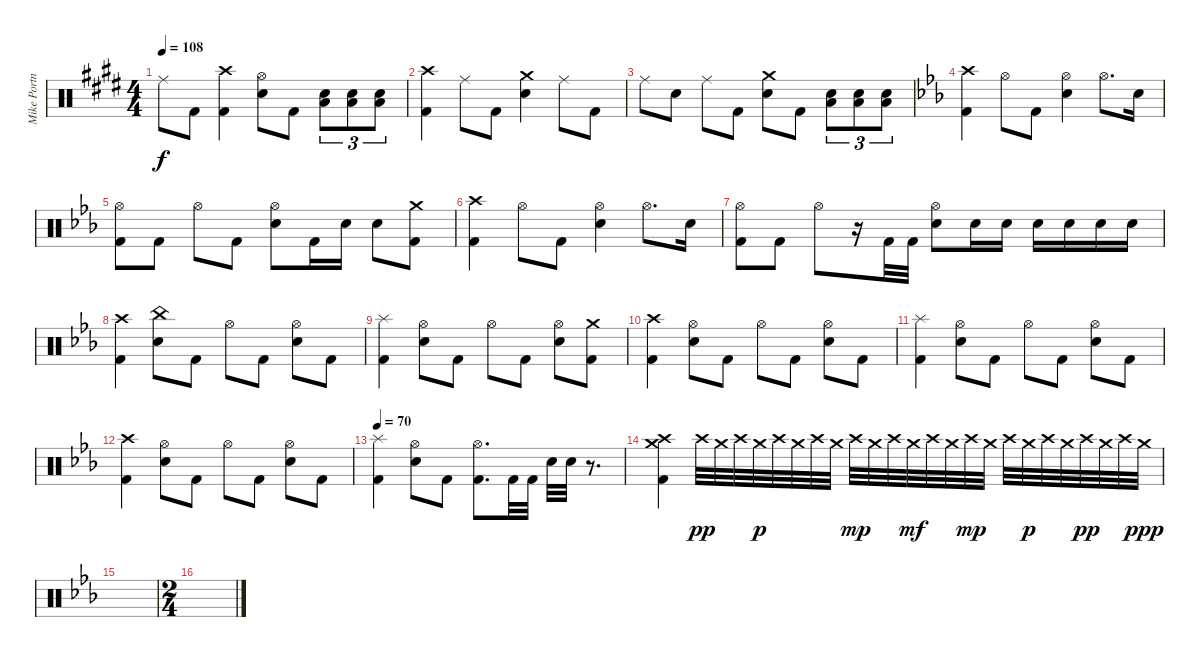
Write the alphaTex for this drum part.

\track ("Mike Portnoy" "Mike Portn") {instrument percussion}
\staff {score}
\articulation defaults
\ts (4 4)
\tempo 108
\clef neutral
\ks e "Ride (middle)".8{dy f} "Kick (hit) 2".8
("Crash high (hit)" "Kick (hit) 2").4 ("Hi-Hat (open)" "Snare (hit) 2").8 "Kick (hit) 2".8 ("Snare (hit) 2" "Low Tom (hit)").8{tu (3 2)} ("Snare (hit) 2" "Low Tom (hit)").8{tu (3 2)} ("Snare (hit) 2" "Low Tom (hit)").8{tu (3 2)} |
("Crash high (hit)" "Kick (hit) 2").4 "Ride (middle)".8 "Kick (hit) 2".8 ("Crash medium (hit)" "Snare (hit) 2").4 "Ride (middle)".8 "Kick (hit) 2".8 |
"Ride (middle)".8 "Snare (hit) 2".8 "Ride (middle)".8 "Kick (hit) 2".8 ("Crash medium (hit)" "Snare (hit) 2").8 "Kick (hit) 2".8 ("Snare (hit) 2" "Low Tom (hit)").8{tu (3 2)} ("Snare (hit) 2" "Low Tom (hit)").8{tu (3 2)} ("Snare (hit) 2" "Low Tom (hit)").8{tu (3 2)} |
\ks eb
("Crash high (hit)" "Kick (hit) 2").4 "Hi-Hat (open)".8 "Kick (hit) 2".8 ("Hi-Hat (open)" "Snare (hit) 2").4 "Hi-Hat (open)".8{d} "Snare (hit) 2".16 |
("Hi-Hat (open)" "Kick (hit) 2").8 "Kick (hit) 2".8 "Hi-Hat (open)".8 "Kick (hit) 2".8 ("Hi-Hat (open)" "Snare (hit) 2").8 "Kick (hit) 2".16 "Snare (hit) 2".16 "Snare (hit) 2".8 ("Crash medium (hit)" "Kick (hit) 2").8 |
("Crash high (hit)" "Kick (hit) 2").4 "Hi-Hat (open)".8 "Kick (hit) 2".8 ("Hi-Hat (open)" "Snare (hit) 2").4 "Hi-Hat (open)".8{d} "Snare (hit) 2".16 |
("Hi-Hat (open)" "Kick (hit) 2").8 "Kick (hit) 2".8 "Hi-Hat (open)".8 r.16 "Kick (hit) 2".32 "Kick (hit) 2".32 ("Hi-Hat (open)" "Snare (hit) 2").8 "Snare (hit) 2".16 "Snare (hit) 2".16 "Snare (hit) 2".16 "Snare (hit) 2".16 "Snare (hit) 2".16 "Snare (hit) 2".16 |
("Crash high (hit)" "Kick (hit) 2").4 ("China (hit)" "Snare (hit) 2").8 "Kick (hit) 2".8 "Hi-Hat (open)".8 "Kick (hit) 2".8 ("Hi-Hat (open)" "Snare (hit) 2").8 "Kick (hit) 2".8 |
("Splash (hit)" "Kick (hit) 2").4 ("Hi-Hat (open)" "Snare (hit) 2").8 "Kick (hit) 2".8 "Hi-Hat (open)".8 "Kick (hit) 2".8 ("Hi-Hat (open)" "Snare (hit) 2").8 ("Crash medium (hit)" "Kick (hit) 2").8 |
("Crash high (hit)" "Kick (hit) 2").4 ("Hi-Hat (open)" "Snare (hit) 2").8 "Kick (hit) 2".8 "Hi-Hat (open)".8 "Kick (hit) 2".8 ("Hi-Hat (open)" "Snare (hit) 2").8 "Kick (hit) 2".8 |
("Splash (hit)" "Kick (hit) 2").4 ("Hi-Hat (open)" "Snare (hit) 2").8 "Kick (hit) 2".8 "Hi-Hat (open)".8 "Kick (hit) 2".8 ("Hi-Hat (open)" "Snare (hit) 2").8 "Kick (hit) 2".8 |
("Crash high (hit)" "Kick (hit) 2").4 ("Hi-Hat (open)" "Snare (hit) 2").8 "Kick (hit) 2".8 "Hi-Hat (open)".8 "Kick (hit) 2".8 ("Hi-Hat (open)" "Snare (hit) 2").8 "Kick (hit) 2".8 |
\tempo 70
("Splash (hit)" "Kick (hit) 2").4 ("Hi-Hat (open)" "Snare (hit) 2").8 "Kick (hit) 2".8 ("Hi-Hat (open)" "Kick (hit) 2").8{d} "Kick (hit) 2".32 "Kick (hit) 2".32 "Snare (hit) 2".32 "Snare (hit) 2".32 r.8{d} |
("Crash high (hit)" "Crash medium (hit)" "Kick (hit) 2").4 "Crash high (hit)".32{dy pp} "Crash medium (hit)".32 "Crash high (hit)".32 "Crash medium (hit)".32{dy p} "Crash high (hit)".32 "Crash medium (hit)".32 "Crash high (hit)".32 "Crash medium (hit)".32 "Crash high (hit)".32{dy mp} "Crash medium (hit)".32 "Crash high (hit)".32 "Crash medium (hit)".32{dy mf} "Crash high (hit)".32 "Crash medium (hit)".32 "Crash high (hit)".32{dy mp} "Crash medium (hit)".32 "Crash high (hit)".32 "Crash medium (hit)".32{dy p} "Crash high (hit)".32 "Crash medium (hit)".32 "Crash high (hit)".32{dy pp} "Crash medium (hit)".32 "Crash high (hit)".32 "Crash medium (hit)".32{dy ppp} |
|
\ts (2 4)
